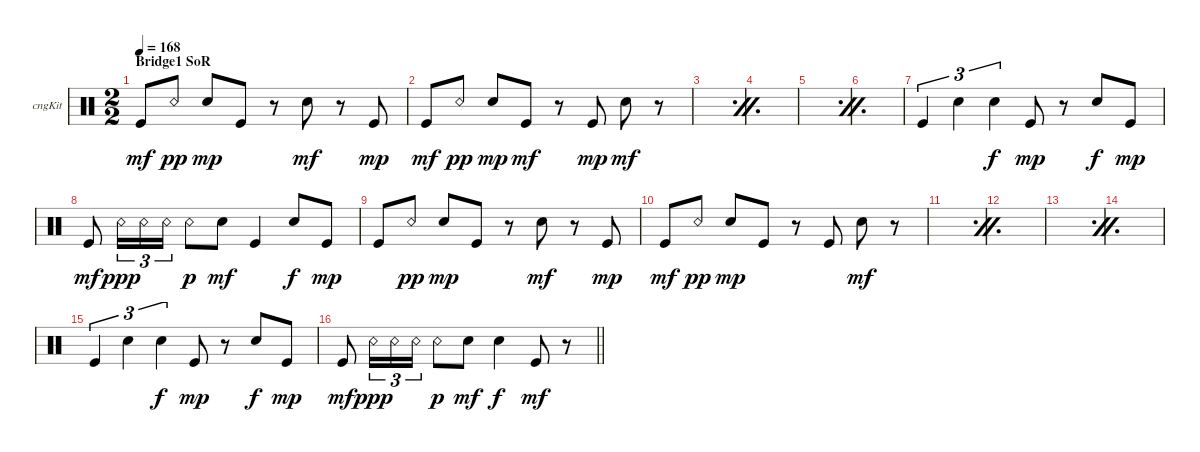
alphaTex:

\bracketExtendMode groupsimilarinstruments
\multiTrackTrackNamePolicy hidden
\firstSystemTrackNameOrientation horizontal
\otherSystemsTrackNameOrientation horizontal
\track ("Congas" "cngKit") {instrument percussion}
\staff {score}
\articulation defaults
\ts (2 2)
\section ("" "Bridge1 SoR")
\tempo 168
\clef neutral
\ks c "Kick (hit)".8{dy mf} "Snare (rim shot)".8{dy pp} "Snare (hit) 2".8{dy mp} "Kick (hit)".8
r.8 "Snare (hit) 2".8{dy mf} r.8 "Kick (hit)".8{dy mp} |
"Kick (hit)".8{dy mf} "Snare (rim shot)".8{dy pp} "Snare (hit) 2".8{dy mp} "Kick (hit)".8{dy mf} r.8 "Kick (hit)".8{dy mp} "Snare (hit) 2".8{dy mf} r.8 |
\simile firstofdouble
|
\simile secondofdouble
|
\simile firstofdouble
|
\simile secondofdouble
|
\simile none "Kick (hit)".4{tu (3 2)} "Snare (hit) 2".4{tu (3 2)} "Snare (hit) 2".4{tu (3 2) dy f} "Kick (hit)".8{dy mp}
r.8 "Snare (hit) 2".8{dy f} "Kick (hit)".8{dy mp} |
"Kick (hit)".8{dy mf} "Snare (rim shot)".16{tu (3 2) dy ppp} "Snare (rim shot)".16{tu (3 2)} "Snare (rim shot)".16{tu (3 2)} "Snare (rim shot)".8{dy p} "Snare (hit) 2".8{dy mf} "Kick (hit)".4 "Snare (hit) 2".8{dy f} "Kick (hit)".8{dy mp} |
"Kick (hit)".8 "Snare (rim shot)".8{dy pp} "Snare (hit) 2".8{dy mp} "Kick (hit)".8 r.8 "Snare (hit) 2".8{dy mf} r.8 "Kick (hit)".8{dy mp} |
"Kick (hit)".8{dy mf} "Snare (rim shot)".8{dy pp} "Snare (hit) 2".8{dy mp} "Kick (hit)".8 r.8 "Kick (hit)".8 "Snare (hit) 2".8{dy mf} r.8 |
\simile firstofdouble
|
\simile secondofdouble
|
\simile firstofdouble
|
\simile secondofdouble
|
\simile none "Kick (hit)".4{tu (3 2)} "Snare (hit) 2".4{tu (3 2)} "Snare (hit) 2".4{tu (3 2) dy f} "Kick (hit)".8{dy mp}
r.8 "Snare (hit) 2".8{dy f} "Kick (hit)".8{dy mp} |
\barLineRight lightlight "Kick (hit)".8{dy mf} "Snare (rim shot)".16{tu (3 2) dy ppp} "Snare (rim shot)".16{tu (3 2)} "Snare (rim shot)".16{tu (3 2)} "Snare (rim shot)".8{dy p} "Snare (hit) 2".8{dy mf} "Snare (hit) 2".4{dy f} "Kick (hit)".8{dy mf}
r.8
